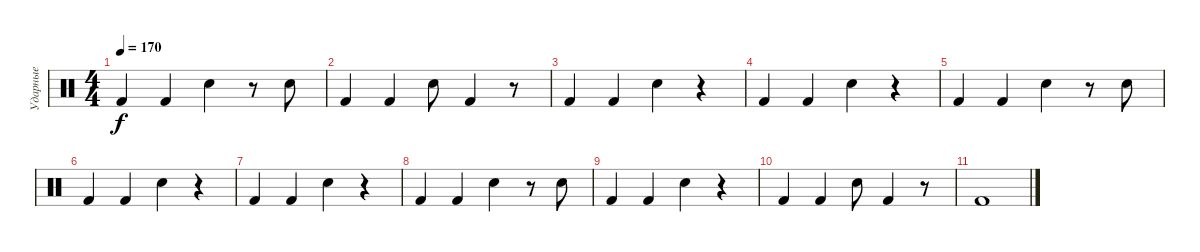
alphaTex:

\track ("Ударные" "Ударные") {instrument percussion}
\staff {score}
\articulation defaults
\ts (4 4)
\tempo 170
\clef neutral
\ks c "Kick (hit) 2".4{dy f} "Kick (hit) 2".4 "Snare (hit) 2".4
r.8 "Snare (hit) 2".8 |
"Kick (hit) 2".4 "Kick (hit) 2".4 "Snare (hit) 2".8 "Kick (hit) 2".4 r.8 |
"Kick (hit) 2".4 "Kick (hit) 2".4 "Snare (hit) 2".4 r.4 |
"Kick (hit) 2".4 "Kick (hit) 2".4 "Snare (hit) 2".4 r.4 |
"Kick (hit) 2".4 "Kick (hit) 2".4 "Snare (hit) 2".4 r.8 "Snare (hit) 2".8 |
"Kick (hit) 2".4 "Kick (hit) 2".4 "Snare (hit) 2".4 r.4 |
"Kick (hit) 2".4 "Kick (hit) 2".4 "Snare (hit) 2".4 r.4 |
"Kick (hit) 2".4 "Kick (hit) 2".4 "Snare (hit) 2".4 r.8 "Snare (hit) 2".8 |
"Kick (hit) 2".4 "Kick (hit) 2".4 "Snare (hit) 2".4 r.4 |
"Kick (hit) 2".4 "Kick (hit) 2".4 "Snare (hit) 2".8 "Kick (hit) 2".4 r.8 |
"Kick (hit) 2".1
